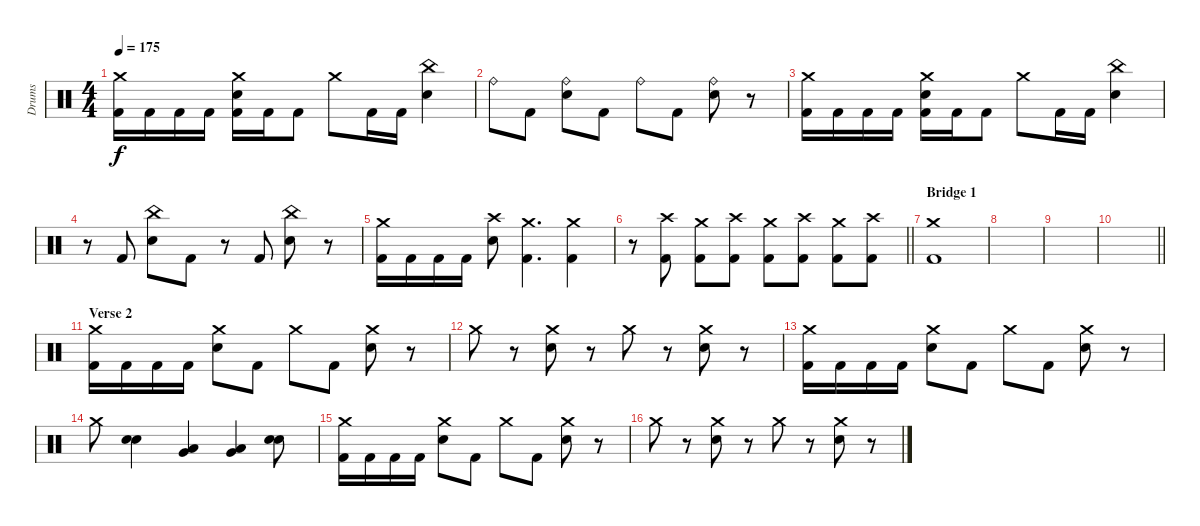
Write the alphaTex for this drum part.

\track ("Drums" "Drums") {instrument percussion}
\staff {score}
\articulation defaults
\ts (4 4)
\tempo 175
\clef neutral
\ks c
("Crash medium (hit)" "Kick (hit) 2").16{dy f} "Kick (hit) 2".16 "Kick (hit) 2".16 "Kick (hit) 2".16 ("Crash medium (hit)" "Electric Snare (hit)" "Kick (hit) 2").16 "Kick (hit) 2".16 "Kick (hit) 2".8 "Crash medium (hit)".8 "Kick (hit) 2".16 "Kick (hit) 2".16 ("China (hit)" "Electric Snare (hit)").4 |
"Ride (bell)".8 "Kick (hit) 2".8 ("Ride (bell)" "Electric Snare (hit)").8 "Kick (hit) 2".8 "Ride (bell)".8 "Kick (hit) 2".8 ("Ride (bell)" "Electric Snare (hit)").8 r.8 |
("Crash medium (hit)" "Kick (hit) 2").16 "Kick (hit) 2".16 "Kick (hit) 2".16 "Kick (hit) 2".16 ("Crash medium (hit)" "Electric Snare (hit)" "Kick (hit) 2").16 "Kick (hit) 2".16 "Kick (hit) 2".8 "Crash medium (hit)".8 "Kick (hit) 2".16 "Kick (hit) 2".16 ("China (hit)" "Electric Snare (hit)").4 |
r.8 "Kick (hit) 2".8 ("China (hit)" "Electric Snare (hit)").8 "Kick (hit) 2".8 r.8 "Kick (hit) 2".8 ("China (hit)" "Electric Snare (hit)").8 r.8 |
("Crash medium (hit)" "Kick (hit) 2").16 "Kick (hit) 2".16 "Kick (hit) 2".16 "Kick (hit) 2".16 ("Crash high (hit)" "Electric Snare (hit)").8 ("Crash medium (hit)" "Kick (hit) 2").4{d} ("Crash medium (hit)" "Kick (hit) 2").4 |
\barLineRight lightlight
r.8 ("Crash high (hit)" "Kick (hit) 2").8 ("Crash medium (hit)" "Kick (hit) 2").8 ("Crash high (hit)" "Kick (hit) 2").8 ("Crash medium (hit)" "Kick (hit) 2").8 ("Crash high (hit)" "Kick (hit) 2").8 ("Crash medium (hit)" "Kick (hit) 2").8 ("Crash high (hit)" "Kick (hit) 2").8 |
\section ("" "Bridge 1")
("Crash medium (hit)" "Kick (hit) 2").1 |
|
|
\barLineRight lightlight
|
\section ("" "Verse 2")
("Crash medium (hit)" "Kick (hit) 2").16 "Kick (hit) 2".16 "Kick (hit) 2".16 "Kick (hit) 2".16 ("Crash medium (hit)" "Electric Snare (hit)").8 "Kick (hit) 2".8 "Crash medium (hit)".8 "Kick (hit) 2".8 ("Crash medium (hit)" "Electric Snare (hit)").8 r.8 |
"Crash medium (hit)".8 r.8 ("Crash medium (hit)" "Electric Snare (hit)").8 r.8 "Crash medium (hit)".8 r.8 ("Crash medium (hit)" "Electric Snare (hit)").8 r.8 |
("Crash medium (hit)" "Kick (hit) 2").16 "Kick (hit) 2".16 "Kick (hit) 2".16 "Kick (hit) 2".16 ("Crash medium (hit)" "Electric Snare (hit)").8 "Kick (hit) 2".8 "Crash medium (hit)".8 "Kick (hit) 2".8 ("Crash medium (hit)" "Electric Snare (hit)").8 r.8 |
"Crash medium (hit)".8 ("Electric Snare (hit)" "Electric Snare (hit)").4 ("Low Tom (hit)" "Very Low Tom (hit)").4 ("Very Low Tom (hit)" "Low Floor Tom (hit)").4 ("Electric Snare (hit)" "Electric Snare (hit)").8 |
("Crash medium (hit)" "Kick (hit) 2").16 "Kick (hit) 2".16 "Kick (hit) 2".16 "Kick (hit) 2".16 ("Crash medium (hit)" "Electric Snare (hit)").8 "Kick (hit) 2".8 "Crash medium (hit)".8 "Kick (hit) 2".8 ("Crash medium (hit)" "Electric Snare (hit)").8 r.8 |
"Crash medium (hit)".8 r.8 ("Crash medium (hit)" "Electric Snare (hit)").8 r.8 "Crash medium (hit)".8 r.8 ("Crash medium (hit)" "Electric Snare (hit)").8 r.8
